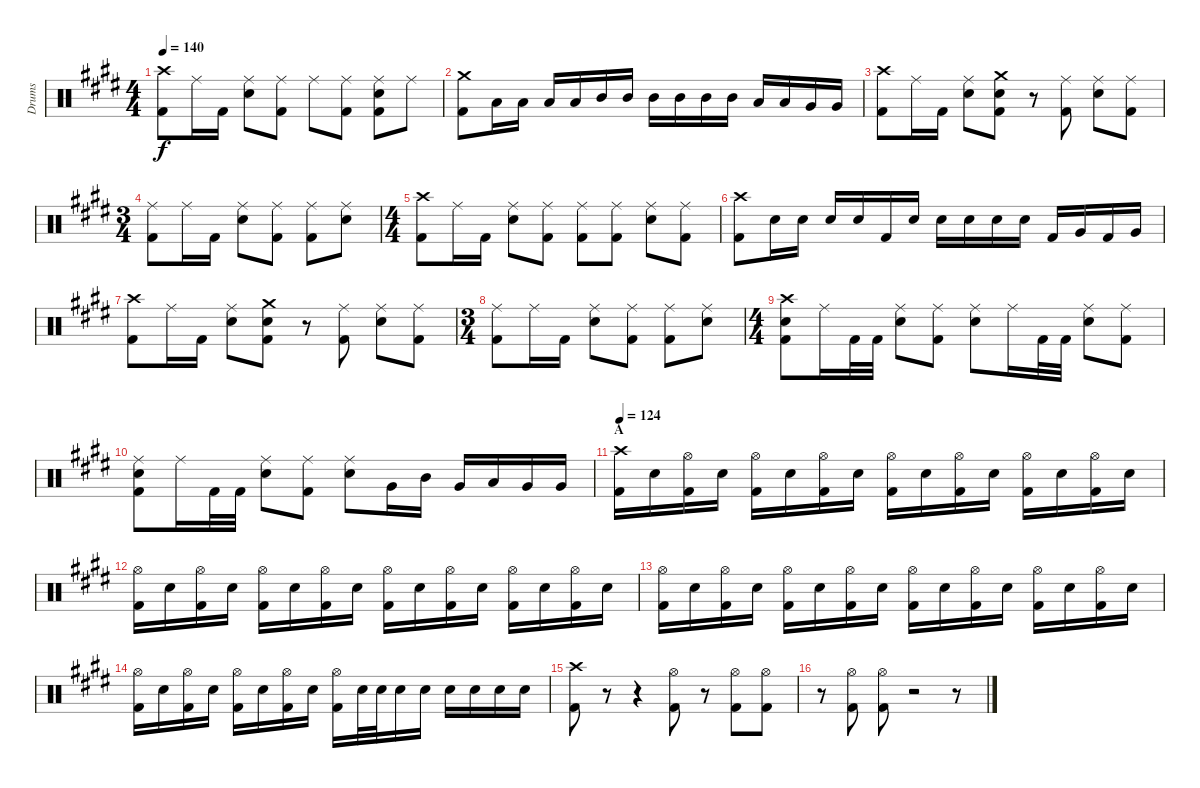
\track ("Drums" "Drums") {instrument percussion}
\staff {score}
\articulation defaults
\ts (4 4)
\tempo 140
\clef neutral
\ks e
("Crash high (hit)" "Kick (hit) 2").8{dy f} "Ride (middle)".16 "Kick (hit) 2".16 ("Ride (middle)" "Electric Snare (hit)").8 ("Ride (middle)" "Kick (hit) 2").8 "Ride (middle)".8 ("Ride (middle)" "Kick (hit) 2").8 ("Ride (middle)" "Electric Snare (hit)" "Kick (hit) 2").8 "Ride (middle)".8 |
("Crash medium (hit)" "Kick (hit) 2").8 "Low Tom (hit)".16 "Low Tom (hit)".16 "Low Tom (hit)".16 "Low Tom (hit)".16 "Mid Tom (hit)".16 "Mid Tom (hit)".16 "Mid Tom (hit)".16 "Mid Tom (hit)".16 "Mid Tom (hit)".16 "Mid Tom (hit)".16 "Low Tom (hit)".16 "Low Tom (hit)".16 "Very Low Tom (hit)".16 "Very Low Tom (hit)".16 |
("Crash high (hit)" "Kick (hit) 2").8 "Ride (middle)".16 "Kick (hit) 2".16 ("Ride (middle)" "Electric Snare (hit)").8 ("Crash medium (hit)" "Electric Snare (hit)" "Kick (hit) 2").8 r.8 ("Ride (middle)" "Kick (hit) 2").8 ("Ride (middle)" "Electric Snare (hit)").8 ("Ride (middle)" "Kick (hit) 2").8 |
\ts (3 4)
("Ride (middle)" "Kick (hit) 2").8 "Ride (middle)".16 "Kick (hit) 2".16 ("Ride (middle)" "Electric Snare (hit)").8 ("Ride (middle)" "Kick (hit) 2").8 ("Ride (middle)" "Kick (hit) 2").8 ("Ride (middle)" "Electric Snare (hit)").8 |
\ts (4 4)
("Crash high (hit)" "Kick (hit) 2").8 "Ride (middle)".16 "Kick (hit) 2".16 ("Ride (middle)" "Electric Snare (hit)").8 ("Ride (middle)" "Kick (hit) 2").8 ("Ride (middle)" "Kick (hit) 2").8 ("Ride (middle)" "Kick (hit) 2").8 ("Ride (middle)" "Electric Snare (hit)").8 ("Ride (middle)" "Kick (hit) 2").8 |
("Crash high (hit)" "Kick (hit) 2").8 "Electric Snare (hit)".16 "Electric Snare (hit)".16 "Electric Snare (hit)".16 "Electric Snare (hit)".16 "Kick (hit) 2".16 "Electric Snare (hit)".16 "Electric Snare (hit)".16 "Electric Snare (hit)".16 "Electric Snare (hit)".16 "Electric Snare (hit)".16 "Kick (hit) 2".16 "Very Low Tom (hit)".16 "Kick (hit) 2".16 "Very Low Tom (hit)".16 |
("Crash high (hit)" "Kick (hit) 2").8 "Ride (middle)".16 "Kick (hit) 2".16 ("Ride (middle)" "Electric Snare (hit)").8 ("Crash medium (hit)" "Electric Snare (hit)" "Kick (hit) 2").8 r.8 ("Ride (middle)" "Kick (hit) 2").8 ("Ride (middle)" "Electric Snare (hit)").8 ("Ride (middle)" "Kick (hit) 2").8 |
\ts (3 4)
("Ride (middle)" "Kick (hit) 2").8 "Ride (middle)".16 "Kick (hit) 2".16 ("Ride (middle)" "Electric Snare (hit)").8 ("Ride (middle)" "Kick (hit) 2").8 ("Ride (middle)" "Kick (hit) 2").8 ("Ride (middle)" "Electric Snare (hit)").8 |
\ts (4 4)
("Crash high (hit)" "Electric Snare (hit)" "Kick (hit) 2").8 "Ride (middle)".16 "Kick (hit) 2".32 "Kick (hit) 2".32 ("Ride (middle)" "Electric Snare (hit)").8 ("Ride (middle)" "Kick (hit) 2").8 ("Ride (middle)" "Electric Snare (hit)").8 "Ride (middle)".16 "Kick (hit) 2".32 "Kick (hit) 2".32 ("Ride (middle)" "Electric Snare (hit)").8 ("Ride (middle)" "Kick (hit) 2").8 |
("Ride (middle)" "Electric Snare (hit)" "Kick (hit) 2").8 "Ride (middle)".16 "Kick (hit) 2".32 "Kick (hit) 2".32 ("Ride (middle)" "Electric Snare (hit)").8 ("Ride (middle)" "Kick (hit) 2").8 ("Ride (middle)" "Electric Snare (hit)").8 "Very Low Tom (hit)".16 "Mid Tom (hit)".16 "Very Low Tom (hit)".16 "Low Tom (hit)".16 "Very Low Tom (hit)".16 "Very Low Tom (hit)".16 |
\section ("" "A")
\tempo 124
("Crash high (hit)" "Kick (hit) 2").16 "Electric Snare (hit)".16 ("Hi-Hat (open)" "Kick (hit) 2").16 "Electric Snare (hit)".16 ("Hi-Hat (open)" "Kick (hit) 2").16 "Electric Snare (hit)".16 ("Hi-Hat (open)" "Kick (hit) 2").16 "Electric Snare (hit)".16 ("Hi-Hat (open)" "Kick (hit) 2").16 "Electric Snare (hit)".16 ("Hi-Hat (open)" "Kick (hit) 2").16 "Electric Snare (hit)".16 ("Hi-Hat (open)" "Kick (hit) 2").16 "Electric Snare (hit)".16 ("Hi-Hat (open)" "Kick (hit) 2").16 "Electric Snare (hit)".16 |
("Hi-Hat (open)" "Kick (hit) 2").16 "Electric Snare (hit)".16 ("Hi-Hat (open)" "Kick (hit) 2").16 "Electric Snare (hit)".16 ("Hi-Hat (open)" "Kick (hit) 2").16 "Electric Snare (hit)".16 ("Hi-Hat (open)" "Kick (hit) 2").16 "Electric Snare (hit)".16 ("Hi-Hat (open)" "Kick (hit) 2").16 "Electric Snare (hit)".16 ("Hi-Hat (open)" "Kick (hit) 2").16 "Electric Snare (hit)".16 ("Hi-Hat (open)" "Kick (hit) 2").16 "Electric Snare (hit)".16 ("Hi-Hat (open)" "Kick (hit) 2").16 "Electric Snare (hit)".16 |
("Hi-Hat (open)" "Kick (hit) 2").16 "Electric Snare (hit)".16 ("Hi-Hat (open)" "Kick (hit) 2").16 "Electric Snare (hit)".16 ("Hi-Hat (open)" "Kick (hit) 2").16 "Electric Snare (hit)".16 ("Hi-Hat (open)" "Kick (hit) 2").16 "Electric Snare (hit)".16 ("Hi-Hat (open)" "Kick (hit) 2").16 "Electric Snare (hit)".16 ("Hi-Hat (open)" "Kick (hit) 2").16 "Electric Snare (hit)".16 ("Hi-Hat (open)" "Kick (hit) 2").16 "Electric Snare (hit)".16 ("Hi-Hat (open)" "Kick (hit) 2").16 "Electric Snare (hit)".16 |
("Hi-Hat (open)" "Kick (hit) 2").16 "Electric Snare (hit)".16 ("Hi-Hat (open)" "Kick (hit) 2").16 "Electric Snare (hit)".16 ("Hi-Hat (open)" "Kick (hit) 2").16 "Electric Snare (hit)".16 ("Hi-Hat (open)" "Kick (hit) 2").16 "Electric Snare (hit)".16 ("Hi-Hat (open)" "Kick (hit) 2").16 "Electric Snare (hit)".32 "Electric Snare (hit)".32 "Electric Snare (hit)".16 "Electric Snare (hit)".16 "Electric Snare (hit)".16 "Electric Snare (hit)".16 "Electric Snare (hit)".16 "Electric Snare (hit)".16 |
("Kick (hit) 2" "Crash high (hit)").8 r.8 r.4 ("Kick (hit) 2" "Hi-Hat (open)").8 r.8 ("Kick (hit) 2" "Hi-Hat (open)").8 ("Kick (hit) 2" "Hi-Hat (open)").8 |
r.8 ("Kick (hit) 2" "Hi-Hat (open)").8 ("Kick (hit) 2" "Hi-Hat (open)").8 r.2 r.8
